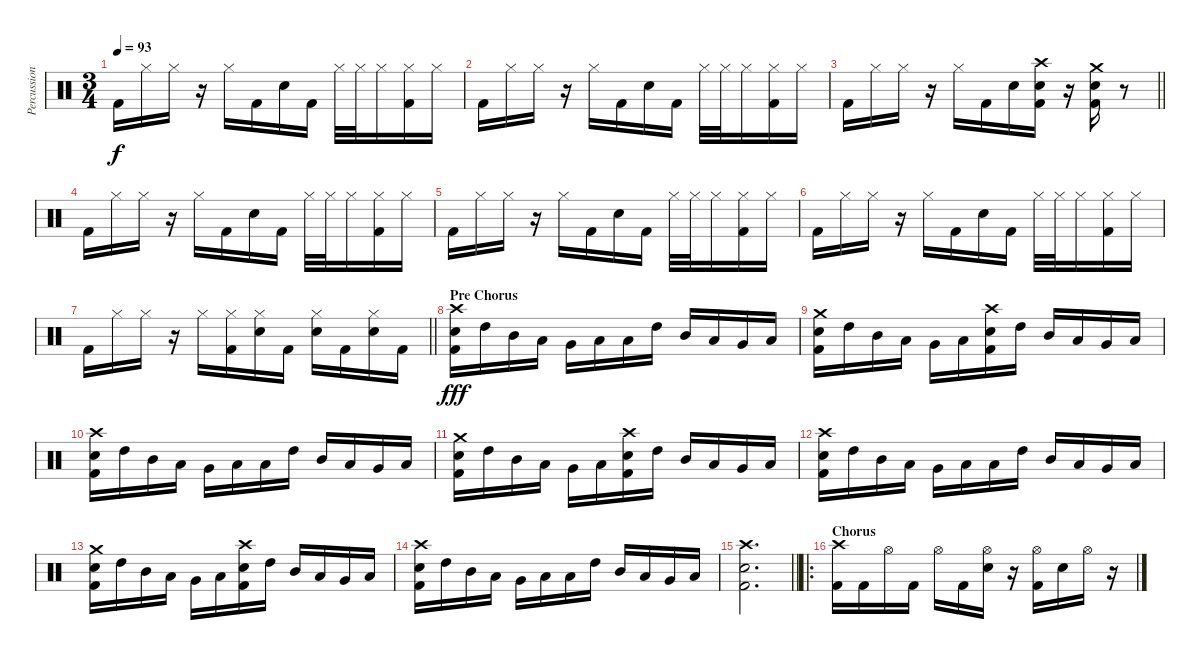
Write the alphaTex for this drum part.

\track ("Percussion" "Percussion") {instrument percussion}
\staff {score}
\articulation defaults
\ts (3 4)
\tempo 93
\clef neutral
\ks c "Kick (hit) 2".16{dy f} "Hi-Hat (closed)".16 "Hi-Hat (closed)".16
r.16 "Hi-Hat (closed)".16 "Kick (hit) 2".16 "Snare (hit) 2".16 "Kick (hit) 2".16 "Hi-Hat (closed)".32 "Hi-Hat (closed)".32 "Hi-Hat (closed)".16 ("Hi-Hat (closed)" "Kick (hit) 2").16 "Hi-Hat (closed)".16 |
"Kick (hit) 2".16 "Hi-Hat (closed)".16 "Hi-Hat (closed)".16 r.16 "Hi-Hat (closed)".16 "Kick (hit) 2".16 "Snare (hit) 2".16 "Kick (hit) 2".16 "Hi-Hat (closed)".32 "Hi-Hat (closed)".32 "Hi-Hat (closed)".16 ("Hi-Hat (closed)" "Kick (hit) 2").16 "Hi-Hat (closed)".16 |
\barLineRight lightlight "Kick (hit) 2".16 "Hi-Hat (closed)".16 "Hi-Hat (closed)".16
r.16 "Hi-Hat (closed)".16 "Kick (hit) 2".16 "Snare (hit) 2".16 ("Crash high (hit)" "Snare (hit) 2" "Kick (hit) 2").16 r.16 ("Crash medium (hit)" "Snare (hit) 2" "Kick (hit) 2").16 r.8 |
"Kick (hit) 2".16 "Hi-Hat (closed)".16 "Hi-Hat (closed)".16 r.16 "Hi-Hat (closed)".16 "Kick (hit) 2".16 "Snare (hit) 2".16 "Kick (hit) 2".16 "Hi-Hat (closed)".32 "Hi-Hat (closed)".32 "Hi-Hat (closed)".16 ("Hi-Hat (closed)" "Kick (hit) 2").16 "Hi-Hat (closed)".16 |
"Kick (hit) 2".16 "Hi-Hat (closed)".16 "Hi-Hat (closed)".16 r.16 "Hi-Hat (closed)".16 "Kick (hit) 2".16 "Snare (hit) 2".16 "Kick (hit) 2".16 "Hi-Hat (closed)".32 "Hi-Hat (closed)".32 "Hi-Hat (closed)".16 ("Hi-Hat (closed)" "Kick (hit) 2").16 "Hi-Hat (closed)".16 |
"Kick (hit) 2".16 "Hi-Hat (closed)".16 "Hi-Hat (closed)".16 r.16 "Hi-Hat (closed)".16 "Kick (hit) 2".16 "Snare (hit) 2".16 "Kick (hit) 2".16 "Hi-Hat (closed)".32 "Hi-Hat (closed)".32 "Hi-Hat (closed)".16 ("Hi-Hat (closed)" "Kick (hit) 2").16 "Hi-Hat (closed)".16 |
\barLineRight lightlight "Kick (hit) 2".16 "Hi-Hat (closed)".16 "Hi-Hat (closed)".16
r.16 "Hi-Hat (closed)".16 ("Hi-Hat (closed)" "Kick (hit) 2").16 ("Hi-Hat (closed)" "Snare (hit) 2").16 "Kick (hit) 2".16 ("Hi-Hat (closed)" "Snare (hit) 2").16 "Kick (hit) 2".16 ("Hi-Hat (closed)" "Snare (hit) 2").16 "Kick (hit) 2".16 |
\section ("" "Pre Chorus")
("Crash high (hit)" "Snare (hit) 2" "Kick (hit) 2").16{dy fff} "High Tom (hit)".16 "Mid Tom (hit)".16 "Low Tom (hit)".16 "Very Low Tom (hit)".16 "Low Floor Tom (hit)".16 "Low Floor Tom (hit)".16 "High Tom (hit)".16 "Mid Tom (hit)".16 "Low Tom (hit)".16 "Very Low Tom (hit)".16 "Low Floor Tom (hit)".16 |
("Crash medium (hit)" "Snare (hit) 2" "Kick (hit) 2").16 "High Tom (hit)".16 "Mid Tom (hit)".16 "Low Tom (hit)".16 "Very Low Tom (hit)".16 "Low Floor Tom (hit)".16 ("Crash high (hit)" "Snare (hit) 2" "Kick (hit) 2").16 "High Tom (hit)".16 "Mid Tom (hit)".16 "Low Tom (hit)".16 "Very Low Tom (hit)".16 "Low Floor Tom (hit)".16 |
("Crash high (hit)" "Snare (hit) 2" "Kick (hit) 2").16 "High Tom (hit)".16 "Mid Tom (hit)".16 "Low Tom (hit)".16 "Very Low Tom (hit)".16 "Low Floor Tom (hit)".16 "Low Floor Tom (hit)".16 "High Tom (hit)".16 "Mid Tom (hit)".16 "Low Tom (hit)".16 "Very Low Tom (hit)".16 "Low Floor Tom (hit)".16 |
("Crash medium (hit)" "Snare (hit) 2" "Kick (hit) 2").16 "High Tom (hit)".16 "Mid Tom (hit)".16 "Low Tom (hit)".16 "Very Low Tom (hit)".16 "Low Floor Tom (hit)".16 ("Crash high (hit)" "Snare (hit) 2" "Kick (hit) 2").16 "High Tom (hit)".16 "Mid Tom (hit)".16 "Low Tom (hit)".16 "Very Low Tom (hit)".16 "Low Floor Tom (hit)".16 |
("Crash high (hit)" "Snare (hit) 2" "Kick (hit) 2").16 "High Tom (hit)".16 "Mid Tom (hit)".16 "Low Tom (hit)".16 "Very Low Tom (hit)".16 "Low Floor Tom (hit)".16 "Low Floor Tom (hit)".16 "High Tom (hit)".16 "Mid Tom (hit)".16 "Low Tom (hit)".16 "Very Low Tom (hit)".16 "Low Floor Tom (hit)".16 |
("Crash medium (hit)" "Snare (hit) 2" "Kick (hit) 2").16 "High Tom (hit)".16 "Mid Tom (hit)".16 "Low Tom (hit)".16 "Very Low Tom (hit)".16 "Low Floor Tom (hit)".16 ("Crash high (hit)" "Snare (hit) 2" "Kick (hit) 2").16 "High Tom (hit)".16 "Mid Tom (hit)".16 "Low Tom (hit)".16 "Very Low Tom (hit)".16 "Low Floor Tom (hit)".16 |
("Crash high (hit)" "Snare (hit) 2" "Kick (hit) 2").16 "High Tom (hit)".16 "Mid Tom (hit)".16 "Low Tom (hit)".16 "Very Low Tom (hit)".16 "Low Floor Tom (hit)".16 "Low Floor Tom (hit)".16 "High Tom (hit)".16 "Mid Tom (hit)".16 "Low Tom (hit)".16 "Very Low Tom (hit)".16 "Low Floor Tom (hit)".16 |
\barLineRight lightlight
("Crash high (hit)" "Snare (hit) 2" "Kick (hit) 2").2{d} |
\ro
\section ("" "Chorus")
("Crash high (hit)" "Kick (hit) 2").16 "Kick (hit) 2".16 "Hi-Hat (open)".16 "Kick (hit) 2".16 "Hi-Hat (open)".16 "Kick (hit) 2".16 ("Hi-Hat (open)" "Snare (hit) 2").16 r.16 ("Hi-Hat (open)" "Kick (hit) 2").16 "Snare (hit) 2".16 "Hi-Hat (open)".16 r.16
